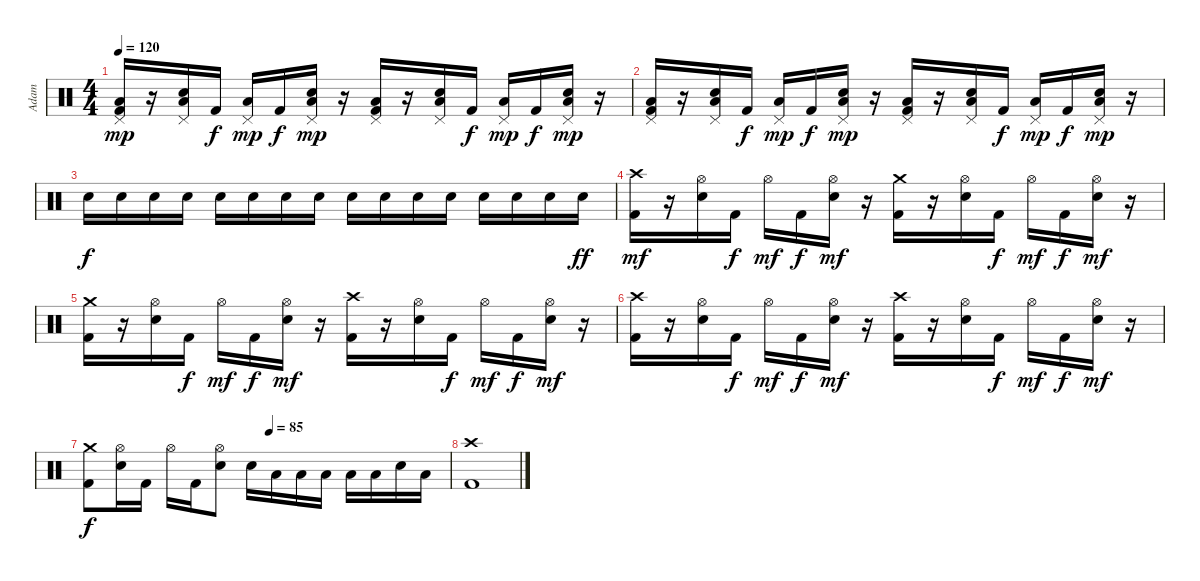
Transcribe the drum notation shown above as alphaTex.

\track ("Adam" "Adam") {instrument percussion}
\staff {score}
\articulation defaults
\ts (4 4)
\tempo 120
\clef neutral
\ks c
("Pedal Hi-Hat (hit)" "Low Floor Tom (hit)" "Kick (hit) 2").16{dy mp} r.16 ("Pedal Hi-Hat (hit)" "Low Floor Tom (hit)" "Snare (hit) 2").16 "Kick (hit) 2".16{dy f} ("Pedal Hi-Hat (hit)" "Low Floor Tom (hit)").16{dy mp} "Kick (hit) 2".16{dy f} ("Pedal Hi-Hat (hit)" "Low Floor Tom (hit)" "Snare (hit) 2").16{dy mp} r.16 ("Pedal Hi-Hat (hit)" "Low Floor Tom (hit)" "Kick (hit) 2").16 r.16 ("Pedal Hi-Hat (hit)" "Low Floor Tom (hit)" "Snare (hit) 2").16 "Kick (hit) 2".16{dy f} ("Pedal Hi-Hat (hit)" "Low Floor Tom (hit)").16{dy mp} "Kick (hit) 2".16{dy f} ("Pedal Hi-Hat (hit)" "Low Floor Tom (hit)" "Snare (hit) 2").16{dy mp} r.16 |
("Pedal Hi-Hat (hit)" "Low Floor Tom (hit)" "Kick (hit) 2").16 r.16 ("Pedal Hi-Hat (hit)" "Low Floor Tom (hit)" "Snare (hit) 2").16 "Kick (hit) 2".16{dy f} ("Pedal Hi-Hat (hit)" "Low Floor Tom (hit)").16{dy mp} "Kick (hit) 2".16{dy f} ("Pedal Hi-Hat (hit)" "Low Floor Tom (hit)" "Snare (hit) 2").16{dy mp} r.16 ("Pedal Hi-Hat (hit)" "Low Floor Tom (hit)" "Kick (hit) 2").16 r.16 ("Pedal Hi-Hat (hit)" "Low Floor Tom (hit)" "Snare (hit) 2").16 "Kick (hit) 2".16{dy f} ("Pedal Hi-Hat (hit)" "Low Floor Tom (hit)").16{dy mp} "Kick (hit) 2".16{dy f} ("Pedal Hi-Hat (hit)" "Low Floor Tom (hit)" "Snare (hit) 2").16{dy mp} r.16 |
"Snare (hit) 2".16{dy f} "Snare (hit) 2".16 "Snare (hit) 2".16 "Snare (hit) 2".16 "Snare (hit) 2".16 "Snare (hit) 2".16 "Snare (hit) 2".16 "Snare (hit) 2".16 "Snare (hit) 2".16 "Snare (hit) 2".16 "Snare (hit) 2".16 "Snare (hit) 2".16 "Snare (hit) 2".16 "Snare (hit) 2".16 "Snare (hit) 2".16 "Snare (hit) 2".16{dy ff} |
("Crash high (hit)" "Kick (hit) 2").16{dy mf} r.16 ("Hi-Hat (open)" "Snare (hit) 2").16 "Kick (hit) 2".16{dy f} "Hi-Hat (open)".16{dy mf} "Kick (hit) 2".16{dy f} ("Hi-Hat (open)" "Snare (hit) 2").16{dy mf} r.16 ("Crash medium (hit)" "Kick (hit) 2").16 r.16 ("Hi-Hat (open)" "Snare (hit) 2").16 "Kick (hit) 2".16{dy f} "Hi-Hat (open)".16{dy mf} "Kick (hit) 2".16{dy f} ("Hi-Hat (open)" "Snare (hit) 2").16{dy mf} r.16 |
("Crash medium (hit)" "Kick (hit) 2").16 r.16 ("Hi-Hat (open)" "Snare (hit) 2").16 "Kick (hit) 2".16{dy f} "Hi-Hat (open)".16{dy mf} "Kick (hit) 2".16{dy f} ("Hi-Hat (open)" "Snare (hit) 2").16{dy mf} r.16 ("Crash high (hit)" "Kick (hit) 2").16 r.16 ("Hi-Hat (open)" "Snare (hit) 2").16 "Kick (hit) 2".16{dy f} "Hi-Hat (open)".16{dy mf} "Kick (hit) 2".16{dy f} ("Hi-Hat (open)" "Snare (hit) 2").16{dy mf} r.16 |
("Crash high (hit)" "Kick (hit) 2").16 r.16 ("Hi-Hat (open)" "Snare (hit) 2").16 "Kick (hit) 2".16{dy f} "Hi-Hat (open)".16{dy mf} "Kick (hit) 2".16{dy f} ("Hi-Hat (open)" "Snare (hit) 2").16{dy mf} r.16 ("Crash high (hit)" "Kick (hit) 2").16 r.16 ("Hi-Hat (open)" "Snare (hit) 2").16 "Kick (hit) 2".16{dy f} "Hi-Hat (open)".16{dy mf} "Kick (hit) 2".16{dy f} ("Hi-Hat (open)" "Snare (hit) 2").16{dy mf} r.16 |
\tempo (85 0.5)
("Crash medium (hit)" "Kick (hit) 2").8{dy f} ("Hi-Hat (open)" "Snare (hit) 2").16 "Kick (hit) 2".16 "Hi-Hat (open)".16 "Kick (hit) 2".16 ("Hi-Hat (open)" "Snare (hit) 2").8 "Snare (hit) 2".16 "Low Floor Tom (hit)".16 "Low Floor Tom (hit)".16 "Low Tom (hit)".16 "Low Floor Tom (hit)".16 "Low Floor Tom (hit)".16 "Snare (hit) 2".16 "Low Tom (hit)".16 |
("Crash high (hit)" "Kick (hit) 2").1{volume 0}
